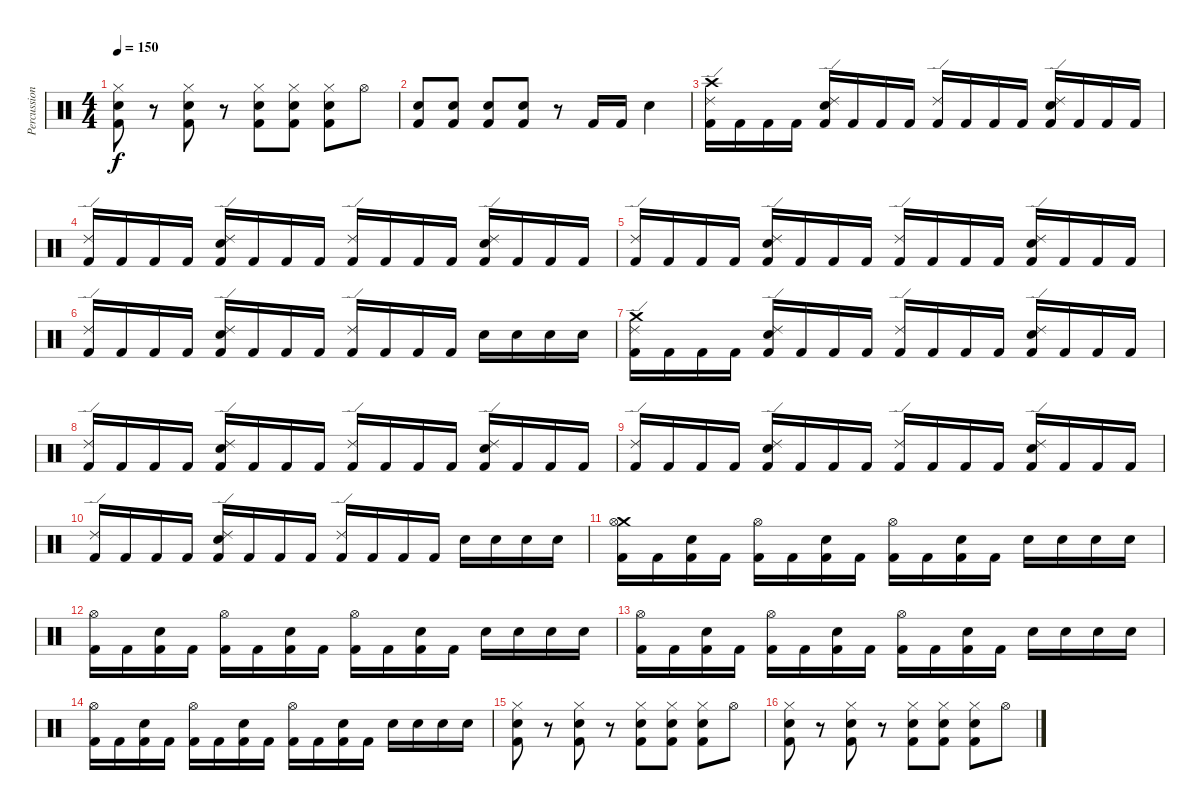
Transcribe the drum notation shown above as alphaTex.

\track ("Percussion" "Percussion") {instrument percussion}
\staff {score}
\articulation defaults
\ts (4 4)
\tempo 150
\clef neutral
\ks c
("Hi-Hat (closed)" "Snare (hit) 2" "Kick (hit) 2").8{dy f} r.8 ("Hi-Hat (closed)" "Snare (hit) 2" "Kick (hit) 2").8 r.8 ("Hi-Hat (closed)" "Snare (hit) 2" "Kick (hit) 2").8 ("Hi-Hat (closed)" "Snare (hit) 2" "Kick (hit) 2").8 ("Hi-Hat (closed)" "Snare (hit) 2" "Kick (hit) 2").8 "Hi-Hat (open)".8 |
("Kick (hit) 2" "Snare (hit) 2").8 ("Kick (hit) 2" "Snare (hit) 2").8 ("Kick (hit) 2" "Snare (hit) 2").8 ("Kick (hit) 2" "Snare (hit) 2").8 r.8 "Kick (hit) 2".16 "Kick (hit) 2".16 "Snare (hit) 2".4 |
("Ride (edge) 2" "Crash high (hit)" "Kick (hit) 2").16 "Kick (hit) 2".16 "Kick (hit) 2".16 "Kick (hit) 2".16 ("Ride (edge) 2" "Snare (hit) 2" "Kick (hit) 2").16 "Kick (hit) 2".16 "Kick (hit) 2".16 "Kick (hit) 2".16 ("Ride (edge) 2" "Kick (hit) 2").16 "Kick (hit) 2".16 "Kick (hit) 2".16 "Kick (hit) 2".16 ("Ride (edge) 2" "Snare (hit) 2" "Kick (hit) 2").16 "Kick (hit) 2".16 "Kick (hit) 2".16 "Kick (hit) 2".16 |
("Ride (edge) 2" "Kick (hit) 2").16 "Kick (hit) 2".16 "Kick (hit) 2".16 "Kick (hit) 2".16 ("Ride (edge) 2" "Snare (hit) 2" "Kick (hit) 2").16 "Kick (hit) 2".16 "Kick (hit) 2".16 "Kick (hit) 2".16 ("Ride (edge) 2" "Kick (hit) 2").16 "Kick (hit) 2".16 "Kick (hit) 2".16 "Kick (hit) 2".16 ("Ride (edge) 2" "Snare (hit) 2" "Kick (hit) 2").16 "Kick (hit) 2".16 "Kick (hit) 2".16 "Kick (hit) 2".16 |
("Ride (edge) 2" "Kick (hit) 2").16 "Kick (hit) 2".16 "Kick (hit) 2".16 "Kick (hit) 2".16 ("Ride (edge) 2" "Snare (hit) 2" "Kick (hit) 2").16 "Kick (hit) 2".16 "Kick (hit) 2".16 "Kick (hit) 2".16 ("Ride (edge) 2" "Kick (hit) 2").16 "Kick (hit) 2".16 "Kick (hit) 2".16 "Kick (hit) 2".16 ("Ride (edge) 2" "Snare (hit) 2" "Kick (hit) 2").16 "Kick (hit) 2".16 "Kick (hit) 2".16 "Kick (hit) 2".16 |
("Ride (edge) 2" "Kick (hit) 2").16 "Kick (hit) 2".16 "Kick (hit) 2".16 "Kick (hit) 2".16 ("Ride (edge) 2" "Snare (hit) 2" "Kick (hit) 2").16 "Kick (hit) 2".16 "Kick (hit) 2".16 "Kick (hit) 2".16 ("Ride (edge) 2" "Kick (hit) 2").16 "Kick (hit) 2".16 "Kick (hit) 2".16 "Kick (hit) 2".16 "Snare (hit) 2".16 "Snare (hit) 2".16 "Snare (hit) 2".16 "Snare (hit) 2".16 |
("Ride (edge) 2" "Crash medium (hit)" "Kick (hit) 2").16 "Kick (hit) 2".16 "Kick (hit) 2".16 "Kick (hit) 2".16 ("Ride (edge) 2" "Snare (hit) 2" "Kick (hit) 2").16 "Kick (hit) 2".16 "Kick (hit) 2".16 "Kick (hit) 2".16 ("Ride (edge) 2" "Kick (hit) 2").16 "Kick (hit) 2".16 "Kick (hit) 2".16 "Kick (hit) 2".16 ("Ride (edge) 2" "Snare (hit) 2" "Kick (hit) 2").16 "Kick (hit) 2".16 "Kick (hit) 2".16 "Kick (hit) 2".16 |
("Ride (edge) 2" "Kick (hit) 2").16 "Kick (hit) 2".16 "Kick (hit) 2".16 "Kick (hit) 2".16 ("Ride (edge) 2" "Snare (hit) 2" "Kick (hit) 2").16 "Kick (hit) 2".16 "Kick (hit) 2".16 "Kick (hit) 2".16 ("Ride (edge) 2" "Kick (hit) 2").16 "Kick (hit) 2".16 "Kick (hit) 2".16 "Kick (hit) 2".16 ("Ride (edge) 2" "Snare (hit) 2" "Kick (hit) 2").16 "Kick (hit) 2".16 "Kick (hit) 2".16 "Kick (hit) 2".16 |
("Ride (edge) 2" "Kick (hit) 2").16 "Kick (hit) 2".16 "Kick (hit) 2".16 "Kick (hit) 2".16 ("Ride (edge) 2" "Snare (hit) 2" "Kick (hit) 2").16 "Kick (hit) 2".16 "Kick (hit) 2".16 "Kick (hit) 2".16 ("Ride (edge) 2" "Kick (hit) 2").16 "Kick (hit) 2".16 "Kick (hit) 2".16 "Kick (hit) 2".16 ("Ride (edge) 2" "Snare (hit) 2" "Kick (hit) 2").16 "Kick (hit) 2".16 "Kick (hit) 2".16 "Kick (hit) 2".16 |
("Ride (edge) 2" "Kick (hit) 2").16 "Kick (hit) 2".16 "Kick (hit) 2".16 "Kick (hit) 2".16 ("Ride (edge) 2" "Snare (hit) 2" "Kick (hit) 2").16 "Kick (hit) 2".16 "Kick (hit) 2".16 "Kick (hit) 2".16 ("Ride (edge) 2" "Kick (hit) 2").16 "Kick (hit) 2".16 "Kick (hit) 2".16 "Kick (hit) 2".16 "Snare (hit) 2".16 "Snare (hit) 2".16 "Snare (hit) 2".16 "Snare (hit) 2".16 |
("Crash medium (hit)" "Hi-Hat (open)" "Kick (hit) 2").16 "Kick (hit) 2".16 ("Snare (hit) 2" "Kick (hit) 2").16 "Kick (hit) 2".16 ("Hi-Hat (open)" "Kick (hit) 2").16 "Kick (hit) 2".16 ("Snare (hit) 2" "Kick (hit) 2").16 "Kick (hit) 2".16 ("Hi-Hat (open)" "Kick (hit) 2").16 "Kick (hit) 2".16 ("Snare (hit) 2" "Kick (hit) 2").16 "Kick (hit) 2".16 "Snare (hit) 2".16 "Snare (hit) 2".16 "Snare (hit) 2".16 "Snare (hit) 2".16 |
("Hi-Hat (open)" "Kick (hit) 2").16 "Kick (hit) 2".16 ("Snare (hit) 2" "Kick (hit) 2").16 "Kick (hit) 2".16 ("Hi-Hat (open)" "Kick (hit) 2").16 "Kick (hit) 2".16 ("Snare (hit) 2" "Kick (hit) 2").16 "Kick (hit) 2".16 ("Hi-Hat (open)" "Kick (hit) 2").16 "Kick (hit) 2".16 ("Snare (hit) 2" "Kick (hit) 2").16 "Kick (hit) 2".16 "Snare (hit) 2".16 "Snare (hit) 2".16 "Snare (hit) 2".16 "Snare (hit) 2".16 |
("Hi-Hat (open)" "Kick (hit) 2").16 "Kick (hit) 2".16 ("Snare (hit) 2" "Kick (hit) 2").16 "Kick (hit) 2".16 ("Hi-Hat (open)" "Kick (hit) 2").16 "Kick (hit) 2".16 ("Snare (hit) 2" "Kick (hit) 2").16 "Kick (hit) 2".16 ("Hi-Hat (open)" "Kick (hit) 2").16 "Kick (hit) 2".16 ("Snare (hit) 2" "Kick (hit) 2").16 "Kick (hit) 2".16 "Snare (hit) 2".16 "Snare (hit) 2".16 "Snare (hit) 2".16 "Snare (hit) 2".16 |
("Hi-Hat (open)" "Kick (hit) 2").16 "Kick (hit) 2".16 ("Snare (hit) 2" "Kick (hit) 2").16 "Kick (hit) 2".16 ("Hi-Hat (open)" "Kick (hit) 2").16 "Kick (hit) 2".16 ("Snare (hit) 2" "Kick (hit) 2").16 "Kick (hit) 2".16 ("Hi-Hat (open)" "Kick (hit) 2").16 "Kick (hit) 2".16 ("Snare (hit) 2" "Kick (hit) 2").16 "Kick (hit) 2".16 "Snare (hit) 2".16 "Snare (hit) 2".16 "Snare (hit) 2".16 "Snare (hit) 2".16 |
("Hi-Hat (closed)" "Snare (hit) 2" "Kick (hit) 2").8 r.8 ("Hi-Hat (closed)" "Snare (hit) 2" "Kick (hit) 2").8 r.8 ("Hi-Hat (closed)" "Snare (hit) 2" "Kick (hit) 2").8 ("Hi-Hat (closed)" "Snare (hit) 2" "Kick (hit) 2").8 ("Hi-Hat (closed)" "Snare (hit) 2" "Kick (hit) 2").8 "Hi-Hat (open)".8 |
("Hi-Hat (closed)" "Snare (hit) 2" "Kick (hit) 2").8 r.8 ("Hi-Hat (closed)" "Snare (hit) 2" "Kick (hit) 2").8 r.8 ("Hi-Hat (closed)" "Snare (hit) 2" "Kick (hit) 2").8 ("Hi-Hat (closed)" "Snare (hit) 2" "Kick (hit) 2").8 ("Hi-Hat (closed)" "Snare (hit) 2" "Kick (hit) 2").8 "Hi-Hat (open)".8
